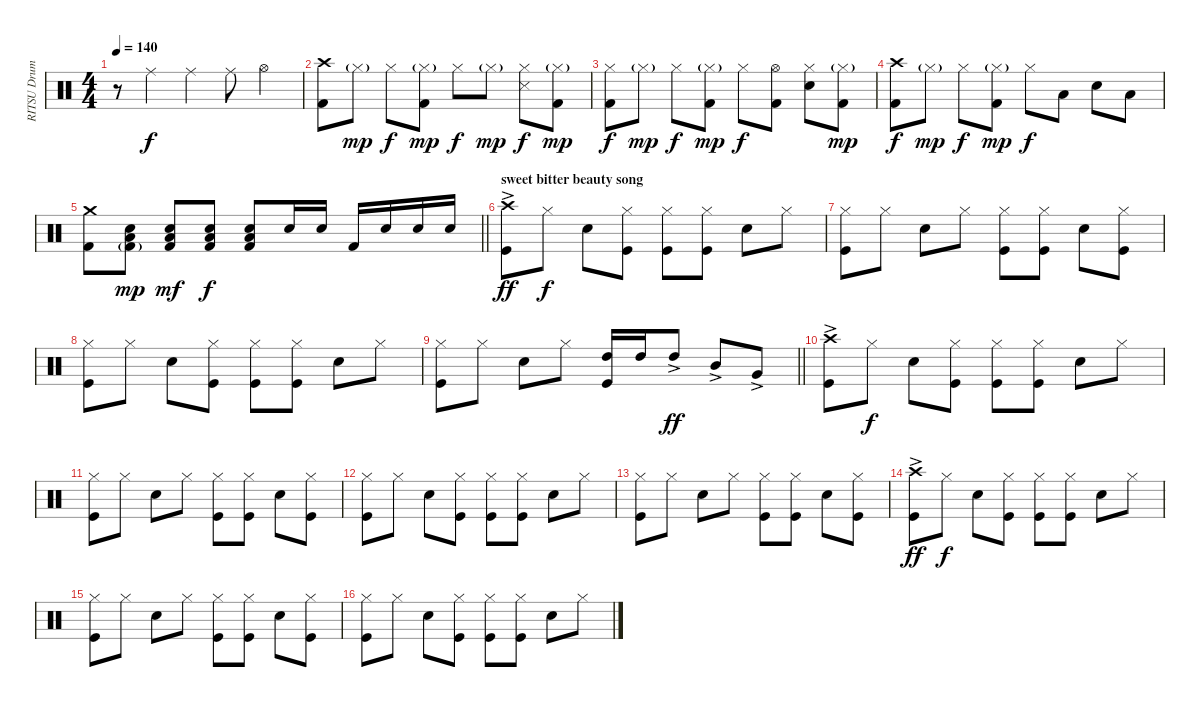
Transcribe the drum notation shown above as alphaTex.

\track ("RITSU Drums" "RITSU Drum") {instrument percussion}
\staff {score}
\articulation defaults
\ts (4 4)
\tempo 140
\clef neutral
\ks c
r.8{dy mp} "Ride (middle)".4{dy f} "Ride (middle)".4 "Ride (middle)".8 "Hi-Hat (open)".4 |
("Crash high (hit)" "Kick (hit) 2").8 "Hi-Hat (closed)"{g}.8{dy mp} "Hi-Hat (closed)".8{dy f} ("Hi-Hat (closed)"{g} "Kick (hit) 2").8{dy mp} "Hi-Hat (closed)".8{dy f} "Hi-Hat (closed)"{g}.8{dy mp} ("Hi-Hat (closed)" "Snare (side stick) 3").8{dy f} ("Hi-Hat (closed)"{g} "Kick (hit) 2").8{dy mp} |
("Hi-Hat (closed)" "Kick (hit) 2").8{dy f} "Hi-Hat (closed)"{g}.8{dy mp} "Hi-Hat (closed)".8{dy f} ("Hi-Hat (closed)"{g} "Kick (hit) 2").8{dy mp} "Hi-Hat (closed)".8{dy f} ("Hi-Hat (open)" "Kick (hit) 2").8 ("Hi-Hat (closed)" "Electric Snare (hit)").8 ("Hi-Hat (closed)"{g} "Kick (hit) 2").8{dy mp} |
("Crash high (hit)" "Kick (hit) 2").8{dy f} "Hi-Hat (closed)"{g}.8{dy mp} "Hi-Hat (closed)".8{dy f} ("Hi-Hat (closed)"{g} "Kick (hit) 2").8{dy mp} "Hi-Hat (closed)".8{dy f} "Low Tom (hit)".8 "Electric Snare (hit)".8 "Low Floor Tom (hit)".8 |
\barLineRight lightlight
("Crash medium (hit)" "Kick (hit) 2").8 ("Electric Snare (hit)" "Low Floor Tom (hit)" "Kick (hit) 2"{g}).8{dy mp} ("Electric Snare (hit)" "Low Floor Tom (hit)" "Kick (hit) 2").8{dy mf} ("Electric Snare (hit)" "Low Floor Tom (hit)" "Kick (hit) 2").8{dy f} ("Electric Snare (hit)" "Low Floor Tom (hit)" "Kick (hit) 2").8 "Electric Snare (hit)".16 "Electric Snare (hit)".16 "Kick (hit) 2".16 "Electric Snare (hit)".16 "Electric Snare (hit)".16 "Electric Snare (hit)".16 |
\section ("" "sweet bitter beauty song")
("Crash high (hit)"{ac} "Kick (hit)").8{dy ff} "Hi-Hat (closed)".8{dy f} "Snare (hit) 2".8 ("Hi-Hat (closed)" "Kick (hit)").8 ("Hi-Hat (closed)" "Kick (hit)").8 ("Hi-Hat (closed)" "Kick (hit)").8 "Snare (hit) 2".8 "Hi-Hat (closed)".8 |
("Hi-Hat (closed)" "Kick (hit)").8 "Hi-Hat (closed)".8 "Snare (hit) 2".8 "Hi-Hat (closed)".8 ("Hi-Hat (closed)" "Kick (hit)").8 ("Hi-Hat (closed)" "Kick (hit)").8 "Snare (hit) 2".8 ("Hi-Hat (closed)" "Kick (hit)").8 |
("Hi-Hat (closed)" "Kick (hit)").8 "Hi-Hat (closed)".8 "Snare (hit) 2".8 ("Hi-Hat (closed)" "Kick (hit)").8 ("Hi-Hat (closed)" "Kick (hit)").8 ("Hi-Hat (closed)" "Kick (hit)").8 "Snare (hit) 2".8 "Hi-Hat (closed)".8 |
\barLineRight lightlight
("Hi-Hat (closed)" "Kick (hit)").8 "Hi-Hat (closed)".8 "Snare (hit) 2".8 "Hi-Hat (closed)".8 ("Kick (hit)" "High Tom (hit)").16 "High Tom (hit)".16 "High Tom (hit)"{ac}.8{dy ff} "Mid Tom (hit)"{ac}.8 "Very Low Tom (hit)"{ac}.8 |
("Crash high (hit)"{ac} "Kick (hit)").8 "Hi-Hat (closed)".8{dy f} "Snare (hit) 2".8 ("Hi-Hat (closed)" "Kick (hit)").8 ("Hi-Hat (closed)" "Kick (hit)").8 ("Hi-Hat (closed)" "Kick (hit)").8 "Snare (hit) 2".8 "Hi-Hat (closed)".8 |
("Hi-Hat (closed)" "Kick (hit)").8 "Hi-Hat (closed)".8 "Snare (hit) 2".8 "Hi-Hat (closed)".8 ("Hi-Hat (closed)" "Kick (hit)").8 ("Hi-Hat (closed)" "Kick (hit)").8 "Snare (hit) 2".8 ("Hi-Hat (closed)" "Kick (hit)").8 |
("Hi-Hat (closed)" "Kick (hit)").8 "Hi-Hat (closed)".8 "Snare (hit) 2".8 ("Hi-Hat (closed)" "Kick (hit)").8 ("Kick (hit)" "Hi-Hat (closed)").8 ("Hi-Hat (closed)" "Kick (hit)").8 "Snare (hit) 2".8 "Hi-Hat (closed)".8 |
("Hi-Hat (closed)" "Kick (hit)").8 "Hi-Hat (closed)".8 "Snare (hit) 2".8 "Hi-Hat (closed)".8 ("Hi-Hat (closed)" "Kick (hit)").8 ("Hi-Hat (closed)" "Kick (hit)").8 "Snare (hit) 2".8 ("Hi-Hat (closed)" "Kick (hit)").8 |
("Crash high (hit)"{ac} "Kick (hit)").8{dy ff} "Hi-Hat (closed)".8{dy f} "Snare (hit) 2".8 ("Hi-Hat (closed)" "Kick (hit)").8 ("Hi-Hat (closed)" "Kick (hit)").8 ("Hi-Hat (closed)" "Kick (hit)").8 "Snare (hit) 2".8 "Hi-Hat (closed)".8 |
("Hi-Hat (closed)" "Kick (hit)").8 "Hi-Hat (closed)".8 "Snare (hit) 2".8 "Hi-Hat (closed)".8 ("Hi-Hat (closed)" "Kick (hit)").8 ("Hi-Hat (closed)" "Kick (hit)").8 "Snare (hit) 2".8 ("Hi-Hat (closed)" "Kick (hit)").8 |
("Hi-Hat (closed)" "Kick (hit)").8 "Hi-Hat (closed)".8 "Snare (hit) 2".8 ("Hi-Hat (closed)" "Kick (hit)").8 ("Kick (hit)" "Hi-Hat (closed)").8 ("Hi-Hat (closed)" "Kick (hit)").8 "Snare (hit) 2".8 "Hi-Hat (closed)".8
